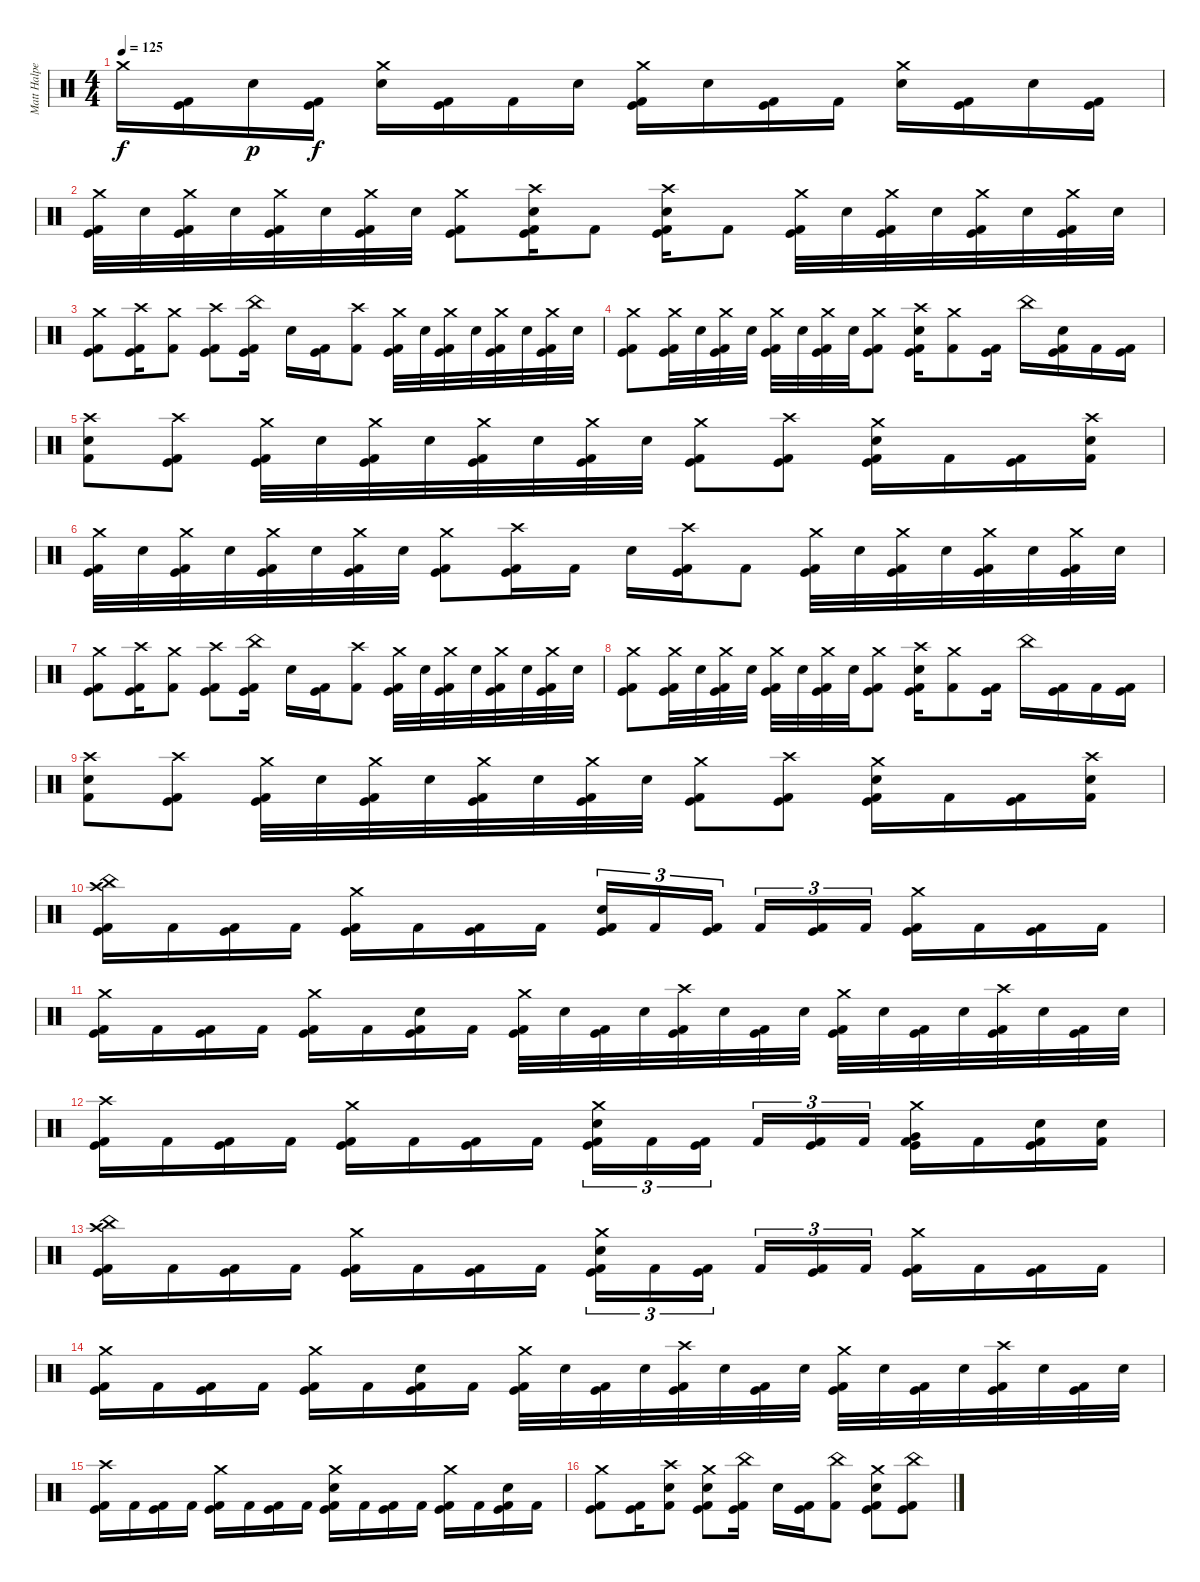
\track ("Matt Halpern" "Matt Halpe") {instrument percussion}
\staff {score}
\articulation defaults
\ts (4 4)
\tempo 125
\clef neutral
\ks c "Crash medium (hit)".16{dy f}
("Kick (hit) 2" "Kick (hit)").16 "Electric Snare (hit)".16{dy p} ("Kick (hit) 2" "Kick (hit)").16{dy f} ("Electric Snare (hit)" "Crash medium (hit)").16 ("Kick (hit) 2" "Kick (hit)").16 "Kick (hit) 2".16 "Electric Snare (hit)".16 ("Kick (hit) 2" "Kick (hit)" "Crash medium (hit)").16 "Electric Snare (hit)".16 ("Kick (hit) 2" "Kick (hit)").16 "Kick (hit) 2".16 ("Electric Snare (hit)" "Crash medium (hit)").16 ("Kick (hit) 2" "Kick (hit)").16 "Electric Snare (hit)".16 ("Kick (hit) 2" "Kick (hit)").16 |
("Kick (hit) 2" "Kick (hit)" "Crash medium (hit)").32 "Electric Snare (hit)".32 ("Kick (hit) 2" "Kick (hit)" "Crash medium (hit)").32 "Electric Snare (hit)".32 ("Kick (hit) 2" "Kick (hit)" "Crash medium (hit)").32 "Electric Snare (hit)".32 ("Kick (hit) 2" "Kick (hit)" "Crash medium (hit)").32 "Electric Snare (hit)".32 ("Kick (hit) 2" "Kick (hit)" "Crash medium (hit)").8 ("Kick (hit) 2" "Kick (hit)" "Electric Snare (hit)" "Crash high (hit)").16 "Kick (hit) 2".8 ("Kick (hit) 2" "Kick (hit)" "Electric Snare (hit)" "Crash high (hit)").16 "Kick (hit) 2".8 ("Kick (hit) 2" "Kick (hit)" "Crash medium (hit)").32 "Electric Snare (hit)".32 ("Kick (hit) 2" "Kick (hit)" "Crash medium (hit)").32 "Electric Snare (hit)".32 ("Kick (hit) 2" "Kick (hit)" "Crash medium (hit)").32 "Electric Snare (hit)".32 ("Kick (hit) 2" "Kick (hit)" "Crash medium (hit)").32 "Electric Snare (hit)".32 |
("Kick (hit) 2" "Kick (hit)" "Crash medium (hit)").8 ("Kick (hit) 2" "Kick (hit)" "Crash high (hit)").16 ("Kick (hit) 2" "Crash medium (hit)").8 ("Kick (hit) 2" "Kick (hit)" "Crash high (hit)").8 ("Kick (hit) 2" "Kick (hit)" "China (hit)").16 "Electric Snare (hit)".16 ("Kick (hit) 2" "Kick (hit)").16 ("Kick (hit) 2" "Crash high (hit)").8 ("Kick (hit) 2" "Kick (hit)" "Crash medium (hit)").32 "Electric Snare (hit)".32 ("Kick (hit) 2" "Kick (hit)" "Crash medium (hit)").32 "Electric Snare (hit)".32 ("Kick (hit) 2" "Kick (hit)" "Crash medium (hit)").32 "Electric Snare (hit)".32 ("Kick (hit) 2" "Kick (hit)" "Crash medium (hit)").32 "Electric Snare (hit)".32 |
("Kick (hit) 2" "Kick (hit)" "Crash medium (hit)").8 ("Kick (hit) 2" "Kick (hit)" "Crash medium (hit)").32 "Electric Snare (hit)".32 ("Kick (hit) 2" "Kick (hit)" "Crash medium (hit)").32 "Electric Snare (hit)".32 ("Kick (hit) 2" "Kick (hit)" "Crash medium (hit)").32 "Electric Snare (hit)".32 ("Kick (hit) 2" "Kick (hit)" "Crash medium (hit)").32 "Electric Snare (hit)".32 ("Kick (hit) 2" "Kick (hit)" "Crash medium (hit)").8 ("Kick (hit) 2" "Kick (hit)" "Electric Snare (hit)" "Crash high (hit)").16 ("Kick (hit) 2" "Crash medium (hit)").8 ("Kick (hit) 2" "Kick (hit)").16 "China (hit)".16 ("Kick (hit) 2" "Kick (hit)" "Electric Snare (hit)").16 "Kick (hit) 2".16 ("Kick (hit) 2" "Kick (hit)").16 |
("Kick (hit) 2" "Electric Snare (hit)" "Crash high (hit)").8 ("Kick (hit) 2" "Kick (hit)" "Crash high (hit)").8 ("Kick (hit) 2" "Kick (hit)" "Crash medium (hit)").32 "Electric Snare (hit)".32 ("Kick (hit) 2" "Kick (hit)" "Crash medium (hit)").32 "Electric Snare (hit)".32 ("Kick (hit) 2" "Kick (hit)" "Crash medium (hit)").32 "Electric Snare (hit)".32 ("Kick (hit) 2" "Kick (hit)" "Crash medium (hit)").32 "Electric Snare (hit)".32 ("Kick (hit) 2" "Kick (hit)" "Crash medium (hit)").8 ("Kick (hit) 2" "Kick (hit)" "Crash high (hit)").8 ("Kick (hit) 2" "Kick (hit)" "Electric Snare (hit)" "Crash medium (hit)").16 "Kick (hit) 2".16 ("Kick (hit) 2" "Kick (hit)").16 ("Kick (hit) 2" "Electric Snare (hit)" "Crash high (hit)").16 |
("Kick (hit) 2" "Kick (hit)" "Crash medium (hit)").32 "Electric Snare (hit)".32 ("Kick (hit) 2" "Kick (hit)" "Crash medium (hit)").32 "Electric Snare (hit)".32 ("Kick (hit) 2" "Kick (hit)" "Crash medium (hit)").32 "Electric Snare (hit)".32 ("Kick (hit) 2" "Kick (hit)" "Crash medium (hit)").32 "Electric Snare (hit)".32 ("Kick (hit) 2" "Kick (hit)" "Crash medium (hit)").8 ("Kick (hit) 2" "Kick (hit)" "Crash high (hit)").16 "Kick (hit) 2".16 "Electric Snare (hit)".16 ("Kick (hit) 2" "Kick (hit)" "Crash high (hit)").16 "Kick (hit) 2".8 ("Kick (hit) 2" "Kick (hit)" "Crash medium (hit)").32 "Electric Snare (hit)".32 ("Kick (hit) 2" "Kick (hit)" "Crash medium (hit)").32 "Electric Snare (hit)".32 ("Kick (hit) 2" "Kick (hit)" "Crash medium (hit)").32 "Electric Snare (hit)".32 ("Kick (hit) 2" "Kick (hit)" "Crash medium (hit)").32 "Electric Snare (hit)".32 |
("Kick (hit) 2" "Kick (hit)" "Crash medium (hit)").8 ("Kick (hit) 2" "Kick (hit)" "Crash high (hit)").16 ("Kick (hit) 2" "Crash medium (hit)").8 ("Kick (hit) 2" "Kick (hit)" "Crash high (hit)").8 ("Kick (hit) 2" "Kick (hit)" "China (hit)").16 "Electric Snare (hit)".16 ("Kick (hit) 2" "Kick (hit)").16 ("Kick (hit) 2" "Crash high (hit)").8 ("Kick (hit) 2" "Kick (hit)" "Crash medium (hit)").32 "Electric Snare (hit)".32 ("Kick (hit) 2" "Kick (hit)" "Crash medium (hit)").32 "Electric Snare (hit)".32 ("Kick (hit) 2" "Kick (hit)" "Crash medium (hit)").32 "Electric Snare (hit)".32 ("Kick (hit) 2" "Kick (hit)" "Crash medium (hit)").32 "Electric Snare (hit)".32 |
("Kick (hit) 2" "Kick (hit)" "Crash medium (hit)").8 ("Kick (hit) 2" "Kick (hit)" "Crash medium (hit)").32 "Electric Snare (hit)".32 ("Kick (hit) 2" "Kick (hit)" "Crash medium (hit)").32 "Electric Snare (hit)".32 ("Kick (hit) 2" "Kick (hit)" "Crash medium (hit)").32 "Electric Snare (hit)".32 ("Kick (hit) 2" "Kick (hit)" "Crash medium (hit)").32 "Electric Snare (hit)".32 ("Kick (hit) 2" "Kick (hit)" "Crash medium (hit)").8 ("Kick (hit) 2" "Kick (hit)" "Electric Snare (hit)" "Crash high (hit)").16 ("Kick (hit) 2" "Crash medium (hit)").8 ("Kick (hit) 2" "Kick (hit)").16 "China (hit)".16 ("Kick (hit) 2" "Kick (hit)").16 "Kick (hit) 2".16 ("Kick (hit) 2" "Kick (hit)").16 |
("Kick (hit) 2" "Electric Snare (hit)" "Crash high (hit)").8 ("Kick (hit) 2" "Kick (hit)" "Crash high (hit)").8 ("Kick (hit) 2" "Kick (hit)" "Crash medium (hit)").32 "Electric Snare (hit)".32 ("Kick (hit) 2" "Kick (hit)" "Crash medium (hit)").32 "Electric Snare (hit)".32 ("Kick (hit) 2" "Kick (hit)" "Crash medium (hit)").32 "Electric Snare (hit)".32 ("Kick (hit) 2" "Kick (hit)" "Crash medium (hit)").32 "Electric Snare (hit)".32 ("Kick (hit) 2" "Kick (hit)" "Crash medium (hit)").8 ("Kick (hit) 2" "Kick (hit)" "Crash high (hit)").8 ("Kick (hit) 2" "Kick (hit)" "Electric Snare (hit)" "Crash medium (hit)").16 "Kick (hit) 2".16 ("Kick (hit) 2" "Kick (hit)").16 ("Kick (hit) 2" "Electric Snare (hit)" "Crash high (hit)").16 |
("Kick (hit) 2" "Kick (hit)" "China (hit)" "Crash high (hit)").16 "Kick (hit) 2".16 ("Kick (hit) 2" "Kick (hit)").16 "Kick (hit) 2".16 ("Kick (hit) 2" "Kick (hit)" "Crash medium (hit)").16 "Kick (hit) 2".16 ("Kick (hit) 2" "Kick (hit)").16 "Kick (hit) 2".16 ("Kick (hit) 2" "Kick (hit)" "Electric Snare (hit)").16{tu (3 2)} "Kick (hit) 2".16{tu (3 2)} ("Kick (hit) 2" "Kick (hit)").16{tu (3 2) beam splitsecondary} "Kick (hit) 2".16{tu (3 2)} ("Kick (hit) 2" "Kick (hit)").16{tu (3 2)} "Kick (hit) 2".16{tu (3 2)} ("Kick (hit) 2" "Kick (hit)" "Crash medium (hit)").16 "Kick (hit) 2".16 ("Kick (hit) 2" "Kick (hit)").16 "Kick (hit) 2".16 |
("Kick (hit) 2" "Kick (hit)" "Crash medium (hit)").16 "Kick (hit) 2".16 ("Kick (hit) 2" "Kick (hit)").16 "Kick (hit) 2".16 ("Kick (hit) 2" "Kick (hit)" "Crash medium (hit)").16 "Kick (hit) 2".16 ("Kick (hit) 2" "Kick (hit)" "Electric Snare (hit)").16 "Kick (hit) 2".16 ("Kick (hit) 2" "Kick (hit)" "Crash medium (hit)").32 "Electric Snare (hit)".32 ("Kick (hit) 2" "Kick (hit)").32 "Electric Snare (hit)".32 ("Kick (hit) 2" "Kick (hit)" "Crash high (hit)").32 "Electric Snare (hit)".32 ("Kick (hit) 2" "Kick (hit)").32 "Electric Snare (hit)".32 ("Kick (hit) 2" "Kick (hit)" "Crash medium (hit)").32 "Electric Snare (hit)".32 ("Kick (hit) 2" "Kick (hit)").32 "Electric Snare (hit)".32 ("Kick (hit) 2" "Kick (hit)" "Crash high (hit)").32 "Electric Snare (hit)".32 ("Kick (hit) 2" "Kick (hit)").32 "Electric Snare (hit)".32 |
("Kick (hit) 2" "Kick (hit)" "Crash high (hit)").16 "Kick (hit) 2".16 ("Kick (hit) 2" "Kick (hit)").16 "Kick (hit) 2".16 ("Kick (hit) 2" "Kick (hit)" "Crash medium (hit)").16 "Kick (hit) 2".16 ("Kick (hit) 2" "Kick (hit)").16 "Kick (hit) 2".16 ("Kick (hit) 2" "Kick (hit)" "Electric Snare (hit)" "Crash medium (hit)").16{tu (3 2)} "Kick (hit) 2".16{tu (3 2)} ("Kick (hit) 2" "Kick (hit)").16{tu (3 2) beam splitsecondary} "Kick (hit) 2".16{tu (3 2)} ("Kick (hit) 2" "Kick (hit)").16{tu (3 2)} "Kick (hit) 2".16{tu (3 2)} ("Kick (hit) 2" "Kick (hit)" "Very Low Tom (hit)" "Crash medium (hit)").16 "Kick (hit) 2".16 ("Kick (hit) 2" "Kick (hit)" "Electric Snare (hit)").16 ("Kick (hit) 2" "Electric Snare (hit)").16 |
("Kick (hit) 2" "Kick (hit)" "China (hit)" "Crash high (hit)").16 "Kick (hit) 2".16 ("Kick (hit) 2" "Kick (hit)").16 "Kick (hit) 2".16 ("Kick (hit) 2" "Kick (hit)" "Crash medium (hit)").16 "Kick (hit) 2".16 ("Kick (hit) 2" "Kick (hit)").16 "Kick (hit) 2".16 ("Kick (hit) 2" "Kick (hit)" "Electric Snare (hit)" "Crash medium (hit)").16{tu (3 2)} "Kick (hit) 2".16{tu (3 2)} ("Kick (hit) 2" "Kick (hit)").16{tu (3 2) beam splitsecondary} "Kick (hit) 2".16{tu (3 2)} ("Kick (hit) 2" "Kick (hit)").16{tu (3 2)} "Kick (hit) 2".16{tu (3 2)} ("Kick (hit) 2" "Kick (hit)" "Crash medium (hit)").16 "Kick (hit) 2".16 ("Kick (hit) 2" "Kick (hit)").16 "Kick (hit) 2".16 |
("Kick (hit) 2" "Kick (hit)" "Crash medium (hit)").16 "Kick (hit) 2".16 ("Kick (hit) 2" "Kick (hit)").16 "Kick (hit) 2".16 ("Kick (hit) 2" "Kick (hit)" "Crash medium (hit)").16 "Kick (hit) 2".16 ("Kick (hit) 2" "Kick (hit)" "Electric Snare (hit)").16 "Kick (hit) 2".16 ("Kick (hit) 2" "Kick (hit)" "Crash medium (hit)").32 "Electric Snare (hit)".32 ("Kick (hit) 2" "Kick (hit)").32 "Electric Snare (hit)".32 ("Kick (hit) 2" "Kick (hit)" "Crash high (hit)").32 "Electric Snare (hit)".32 ("Kick (hit) 2" "Kick (hit)").32 "Electric Snare (hit)".32 ("Kick (hit) 2" "Kick (hit)" "Crash medium (hit)").32 "Electric Snare (hit)".32 ("Kick (hit) 2" "Kick (hit)").32 "Electric Snare (hit)".32 ("Kick (hit) 2" "Kick (hit)" "Crash high (hit)").32 "Electric Snare (hit)".32 ("Kick (hit) 2" "Kick (hit)").32 "Electric Snare (hit)".32 |
("Kick (hit) 2" "Kick (hit)" "Crash high (hit)").16 "Kick (hit) 2".16 ("Kick (hit) 2" "Kick (hit)").16 "Kick (hit) 2".16 ("Kick (hit) 2" "Kick (hit)" "Crash medium (hit)").16 "Kick (hit) 2".16 ("Kick (hit) 2" "Kick (hit)").16 "Kick (hit) 2".16 ("Kick (hit) 2" "Kick (hit)" "Electric Snare (hit)" "Crash medium (hit)").16 "Kick (hit) 2".16 ("Kick (hit) 2" "Kick (hit)").16 "Kick (hit) 2".16 ("Kick (hit) 2" "Kick (hit)" "Crash medium (hit)").16 "Kick (hit) 2".16 ("Kick (hit) 2" "Kick (hit)" "Electric Snare (hit)").16 "Kick (hit) 2".16 |
("Kick (hit) 2" "Kick (hit)" "Crash medium (hit)").8 ("Kick (hit) 2" "Kick (hit)").16 ("Kick (hit) 2" "Electric Snare (hit)" "Crash high (hit)").8 ("Kick (hit) 2" "Kick (hit)" "Electric Snare (hit)" "Crash medium (hit)").8 ("Kick (hit) 2" "Kick (hit)" "China (hit)").16 "Electric Snare (hit)".16 ("Kick (hit) 2" "Kick (hit)").16 ("Kick (hit) 2" "China (hit)").8 ("Kick (hit) 2" "Kick (hit)" "Electric Snare (hit)" "Crash medium (hit)").8 ("Kick (hit) 2" "Kick (hit)" "China (hit)").8
